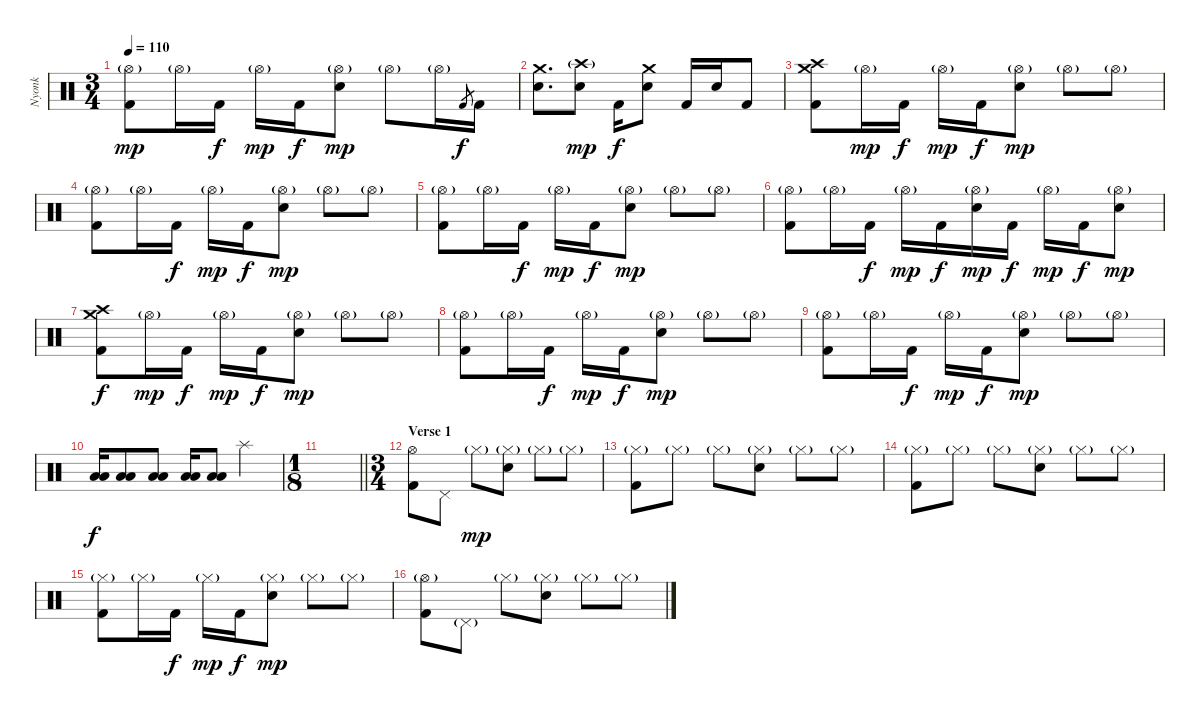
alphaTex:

\track ("Nyonk" "Nyonk") {instrument percussion}
\staff {score}
\articulation defaults
\ts (3 4)
\tempo 110
\clef neutral
\ks c
("Hi-Hat (open)"{g} "Kick (hit) 2").8{dy mp} "Hi-Hat (open)"{g}.16 "Kick (hit) 2".16{dy f} "Hi-Hat (open)"{g}.16{dy mp} "Kick (hit) 2".16{dy f} ("Hi-Hat (open)"{g} "Electric Snare (hit)").8{dy mp} "Hi-Hat (open)"{g}.8 "Hi-Hat (open)"{g}.16 "Kick (hit) 2".8{gr dy f} "Kick (hit) 2".16 |
("Crash medium (hit)" "Electric Snare (hit)").8{d} ("Crash high (hit)"{g} "Electric Snare (hit)").8{dy mp} "Kick (hit) 2".16{dy f} ("Crash medium (hit)" "Electric Snare (hit)").8 "Kick (hit) 2".16 "Electric Snare (hit)".16 "Kick (hit) 2".8 |
("Crash medium (hit)" "Crash high (hit)" "Kick (hit) 2").8 "Hi-Hat (open)"{g}.16{dy mp} "Kick (hit) 2".16{dy f} "Hi-Hat (open)"{g}.16{dy mp} "Kick (hit) 2".16{dy f} ("Hi-Hat (open)"{g} "Electric Snare (hit)").8{dy mp} "Hi-Hat (open)"{g}.8 "Hi-Hat (open)"{g}.8 |
("Hi-Hat (open)"{g} "Kick (hit) 2").8 "Hi-Hat (open)"{g}.16 "Kick (hit) 2".16{dy f} "Hi-Hat (open)"{g}.16{dy mp} "Kick (hit) 2".16{dy f} ("Hi-Hat (open)"{g} "Electric Snare (hit)").8{dy mp} "Hi-Hat (open)"{g}.8 "Hi-Hat (open)"{g}.8 |
("Hi-Hat (open)"{g} "Kick (hit) 2").8 "Hi-Hat (open)"{g}.16 "Kick (hit) 2".16{dy f} "Hi-Hat (open)"{g}.16{dy mp} "Kick (hit) 2".16{dy f} ("Hi-Hat (open)"{g} "Electric Snare (hit)").8{dy mp} "Hi-Hat (open)"{g}.8 "Hi-Hat (open)"{g}.8 |
("Hi-Hat (open)"{g} "Kick (hit) 2").8 "Hi-Hat (open)"{g}.16 "Kick (hit) 2".16{dy f} "Hi-Hat (open)"{g}.16{dy mp} "Kick (hit) 2".16{dy f} ("Hi-Hat (open)"{g} "Electric Snare (hit)").16{dy mp} "Kick (hit) 2".16{dy f} "Hi-Hat (open)"{g}.16{dy mp} "Kick (hit) 2".16{dy f} ("Hi-Hat (open)"{g} "Electric Snare (hit)").8{dy mp} |
("Crash medium (hit)" "Crash high (hit)" "Kick (hit) 2").8{dy f} "Hi-Hat (open)"{g}.16{dy mp} "Kick (hit) 2".16{dy f} "Hi-Hat (open)"{g}.16{dy mp} "Kick (hit) 2".16{dy f} ("Hi-Hat (open)"{g} "Electric Snare (hit)").8{dy mp} "Hi-Hat (open)"{g}.8 "Hi-Hat (open)"{g}.8 |
("Hi-Hat (open)"{g} "Kick (hit) 2").8 "Hi-Hat (open)"{g}.16 "Kick (hit) 2".16{dy f} "Hi-Hat (open)"{g}.16{dy mp} "Kick (hit) 2".16{dy f} ("Hi-Hat (open)"{g} "Electric Snare (hit)").8{dy mp} "Hi-Hat (open)"{g}.8 "Hi-Hat (open)"{g}.8 |
("Hi-Hat (open)"{g} "Kick (hit) 2").8 "Hi-Hat (open)"{g}.16 "Kick (hit) 2".16{dy f} "Hi-Hat (open)"{g}.16{dy mp} "Kick (hit) 2".16{dy f} ("Hi-Hat (open)"{g} "Electric Snare (hit)").8{dy mp} "Hi-Hat (open)"{g}.8 "Hi-Hat (open)"{g}.8 |
("Low Floor Tom (hit)" "Low Floor Tom (hit)").16{dy f} ("Low Floor Tom (hit)" "Low Floor Tom (hit)").8 ("Low Floor Tom (hit)" "Low Floor Tom (hit)").8 ("Low Floor Tom (hit)" "Low Floor Tom (hit)").16 ("Low Floor Tom (hit)" "Low Floor Tom (hit)").8 "Splash (hit)".4 |
\ts (1 8)
\barLineRight lightlight
|
\ts (3 4)
\section ("" "Verse 1")
("Hi-Hat (open)" "Kick (hit) 2").8 "Pedal Hi-Hat (hit)".8 "Hi-Hat (closed)"{g}.8{dy mp} ("Hi-Hat (closed)"{g} "Electric Snare (hit)").8 "Hi-Hat (closed)"{g}.8 "Hi-Hat (closed)"{g}.8 |
("Hi-Hat (closed)"{g} "Kick (hit) 2").8 "Hi-Hat (closed)"{g}.8 "Hi-Hat (closed)"{g}.8 ("Hi-Hat (closed)"{g} "Electric Snare (hit)").8 "Hi-Hat (closed)"{g}.8 "Hi-Hat (closed)"{g}.8 |
("Hi-Hat (closed)"{g} "Kick (hit) 2").8 "Hi-Hat (closed)"{g}.8 "Hi-Hat (closed)"{g}.8 ("Hi-Hat (closed)"{g} "Electric Snare (hit)").8 "Hi-Hat (closed)"{g}.8 "Hi-Hat (closed)"{g}.8 |
("Hi-Hat (closed)"{g} "Kick (hit) 2").8 "Hi-Hat (closed)"{g}.16 "Kick (hit) 2".16{dy f} "Hi-Hat (closed)"{g}.16{dy mp} "Kick (hit) 2".16{dy f} ("Hi-Hat (closed)"{g} "Electric Snare (hit)").8{dy mp} "Hi-Hat (closed)"{g}.8 "Hi-Hat (closed)"{g}.8 |
("Hi-Hat (open)"{g} "Kick (hit) 2").8 "Pedal Hi-Hat (hit)"{g}.8 "Hi-Hat (closed)"{g}.8 ("Hi-Hat (closed)"{g} "Electric Snare (hit)").8 "Hi-Hat (closed)"{g}.8 "Hi-Hat (closed)"{g}.8
